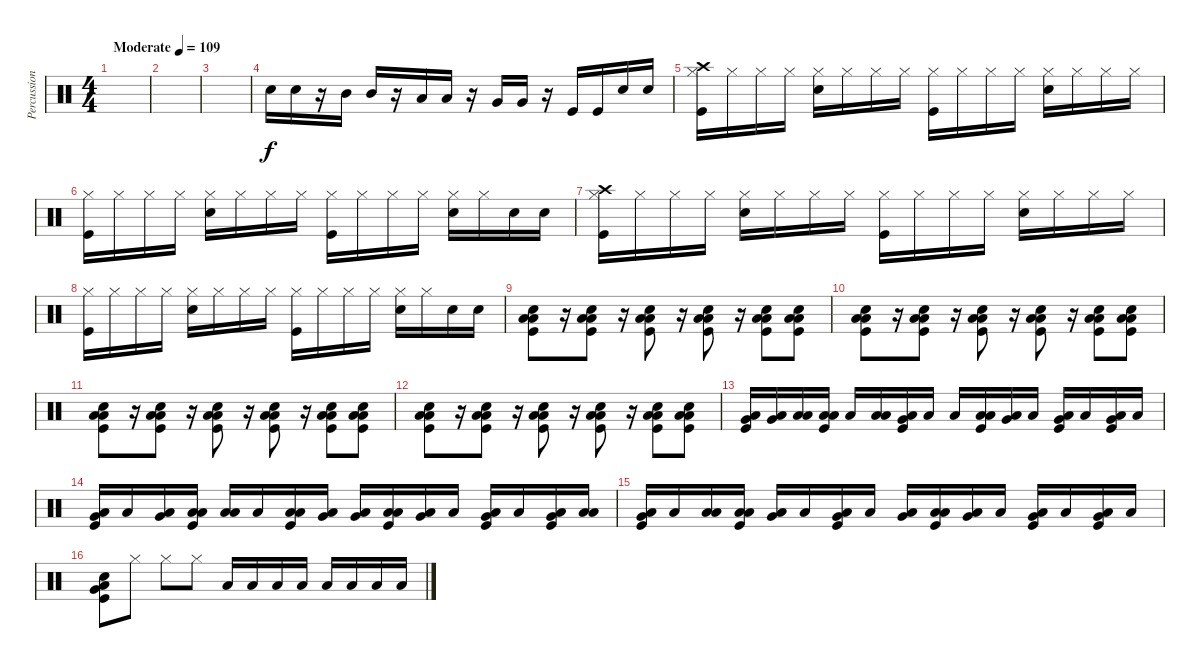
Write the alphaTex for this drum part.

\track ("Percussion" "Percussion") {instrument percussion}
\staff {score}
\articulation defaults
\ts (4 4)
\tempo (109 "Moderate")
\clef neutral
\ks c
|
|
|
"Electric Snare (hit)".16 "Electric Snare (hit)".16 r.16 "Mid Tom (hit)".16 "Mid Tom (hit)".16 r.16 "Low Tom (hit)".16 "Low Tom (hit)".16 r.16 "Very Low Tom (hit)".16 "Very Low Tom (hit)".16 r.16 "Kick (hit)".16 "Kick (hit)".16 "Electric Snare (hit)".16 "Electric Snare (hit)".16 |
("Crash high (hit)" "Hi-Hat (closed)" "Kick (hit)").16 "Hi-Hat (closed)".16 "Hi-Hat (closed)".16 "Hi-Hat (closed)".16 ("Hi-Hat (closed)" "Electric Snare (hit)").16 "Hi-Hat (closed)".16 "Hi-Hat (closed)".16 "Hi-Hat (closed)".16 ("Hi-Hat (closed)" "Kick (hit)").16 "Hi-Hat (closed)".16 "Hi-Hat (closed)".16 "Hi-Hat (closed)".16 ("Hi-Hat (closed)" "Electric Snare (hit)").16 "Hi-Hat (closed)".16 "Hi-Hat (closed)".16 "Hi-Hat (closed)".16 |
("Hi-Hat (closed)" "Kick (hit)").16 "Hi-Hat (closed)".16 "Hi-Hat (closed)".16 "Hi-Hat (closed)".16 ("Hi-Hat (closed)" "Electric Snare (hit)").16 "Hi-Hat (closed)".16 "Hi-Hat (closed)".16 "Hi-Hat (closed)".16 ("Hi-Hat (closed)" "Kick (hit)").16 "Hi-Hat (closed)".16 "Hi-Hat (closed)".16 "Hi-Hat (closed)".16 ("Hi-Hat (closed)" "Electric Snare (hit)").16 "Hi-Hat (closed)".16 "Electric Snare (hit)".16 "Electric Snare (hit)".16 |
("Crash high (hit)" "Hi-Hat (closed)" "Kick (hit)").16 "Hi-Hat (closed)".16 "Hi-Hat (closed)".16 "Hi-Hat (closed)".16 ("Hi-Hat (closed)" "Electric Snare (hit)").16 "Hi-Hat (closed)".16 "Hi-Hat (closed)".16 "Hi-Hat (closed)".16 ("Hi-Hat (closed)" "Kick (hit)").16 "Hi-Hat (closed)".16 "Hi-Hat (closed)".16 "Hi-Hat (closed)".16 ("Hi-Hat (closed)" "Electric Snare (hit)").16 "Hi-Hat (closed)".16 "Hi-Hat (closed)".16 "Hi-Hat (closed)".16 |
("Hi-Hat (closed)" "Kick (hit)").16 "Hi-Hat (closed)".16 "Hi-Hat (closed)".16 "Hi-Hat (closed)".16 ("Hi-Hat (closed)" "Electric Snare (hit)").16 "Hi-Hat (closed)".16 "Hi-Hat (closed)".16 "Hi-Hat (closed)".16 ("Hi-Hat (closed)" "Kick (hit)").16 "Hi-Hat (closed)".16 "Hi-Hat (closed)".16 "Hi-Hat (closed)".16 ("Hi-Hat (closed)" "Electric Snare (hit)").16 "Hi-Hat (closed)".16 "Electric Snare (hit)".16 "Electric Snare (hit)".16 |
("Electric Snare (hit)" "Low Floor Tom (hit)" "Kick (hit)" "Low Tom (hit)").8 r.16 ("Low Floor Tom (hit)" "Electric Snare (hit)" "Kick (hit)" "Low Tom (hit)").8 r.16 ("Low Floor Tom (hit)" "Electric Snare (hit)" "Kick (hit)" "Low Tom (hit)").8 r.16 ("Low Floor Tom (hit)" "Electric Snare (hit)" "Kick (hit)" "Low Tom (hit)").8 r.16 ("Low Floor Tom (hit)" "Electric Snare (hit)" "Kick (hit)" "Low Tom (hit)").8 ("Low Floor Tom (hit)" "Electric Snare (hit)" "Kick (hit)" "Low Tom (hit)").8 |
("Electric Snare (hit)" "Low Floor Tom (hit)" "Kick (hit)" "Low Tom (hit)").8 r.16 ("Low Floor Tom (hit)" "Electric Snare (hit)" "Kick (hit)" "Low Tom (hit)").8 r.16 ("Low Floor Tom (hit)" "Electric Snare (hit)" "Kick (hit)" "Low Tom (hit)").8 r.16 ("Low Floor Tom (hit)" "Electric Snare (hit)" "Kick (hit)" "Low Tom (hit)").8 r.16 ("Low Floor Tom (hit)" "Electric Snare (hit)" "Kick (hit)" "Low Tom (hit)").8 ("Low Floor Tom (hit)" "Electric Snare (hit)" "Kick (hit)" "Low Tom (hit)").8 |
("Electric Snare (hit)" "Low Floor Tom (hit)" "Kick (hit)" "Low Tom (hit)").8 r.16 ("Low Floor Tom (hit)" "Electric Snare (hit)" "Kick (hit)" "Low Tom (hit)").8 r.16 ("Low Floor Tom (hit)" "Electric Snare (hit)" "Kick (hit)" "Low Tom (hit)").8 r.16 ("Low Floor Tom (hit)" "Electric Snare (hit)" "Kick (hit)" "Low Tom (hit)").8 r.16 ("Low Floor Tom (hit)" "Electric Snare (hit)" "Kick (hit)" "Low Tom (hit)").8 ("Low Floor Tom (hit)" "Electric Snare (hit)" "Kick (hit)" "Low Tom (hit)").8 |
("Electric Snare (hit)" "Low Floor Tom (hit)" "Kick (hit)" "Low Tom (hit)").8 r.16 ("Low Floor Tom (hit)" "Electric Snare (hit)" "Kick (hit)" "Low Tom (hit)").8 r.16 ("Low Floor Tom (hit)" "Electric Snare (hit)" "Kick (hit)" "Low Tom (hit)").8 r.16 ("Low Floor Tom (hit)" "Electric Snare (hit)" "Kick (hit)" "Low Tom (hit)").8 r.16 ("Low Floor Tom (hit)" "Electric Snare (hit)" "Kick (hit)" "Low Tom (hit)").8 ("Low Floor Tom (hit)" "Electric Snare (hit)" "Kick (hit)" "Low Tom (hit)").8 |
("Low Floor Tom (hit)" "Very Low Tom (hit)" "Kick (hit)").16 ("Low Floor Tom (hit)" "Very Low Tom (hit)").16 ("Low Floor Tom (hit)" "Low Tom (hit)").16 ("Low Floor Tom (hit)" "Low Tom (hit)" "Kick (hit)").16 "Low Floor Tom (hit)".16 ("Low Floor Tom (hit)" "Low Tom (hit)").16 ("Low Floor Tom (hit)" "Very Low Tom (hit)" "Kick (hit)").16 "Low Floor Tom (hit)".16 "Low Floor Tom (hit)".16 ("Low Floor Tom (hit)" "Low Tom (hit)" "Kick (hit)").16 ("Low Floor Tom (hit)" "Very Low Tom (hit)").16 "Low Floor Tom (hit)".16 ("Low Floor Tom (hit)" "Very Low Tom (hit)" "Kick (hit)").16 "Low Floor Tom (hit)".16 ("Low Floor Tom (hit)" "Very Low Tom (hit)" "Kick (hit)").16 "Low Floor Tom (hit)".16 |
("Low Floor Tom (hit)" "Very Low Tom (hit)" "Kick (hit)").16 "Low Floor Tom (hit)".16 ("Low Floor Tom (hit)" "Very Low Tom (hit)").16 ("Low Floor Tom (hit)" "Low Tom (hit)" "Kick (hit)").16 ("Low Floor Tom (hit)" "Low Tom (hit)").16 "Low Floor Tom (hit)".16 ("Low Floor Tom (hit)" "Low Tom (hit)" "Kick (hit)").16 ("Low Floor Tom (hit)" "Very Low Tom (hit)").16 ("Low Floor Tom (hit)" "Very Low Tom (hit)").16 ("Low Floor Tom (hit)" "Low Tom (hit)" "Kick (hit)").16 ("Low Floor Tom (hit)" "Very Low Tom (hit)").16 "Low Floor Tom (hit)".16 ("Low Floor Tom (hit)" "Very Low Tom (hit)" "Kick (hit)").16 "Low Floor Tom (hit)".16 ("Low Floor Tom (hit)" "Very Low Tom (hit)" "Kick (hit)").16 ("Low Floor Tom (hit)" "Low Tom (hit)").16 |
("Low Floor Tom (hit)" "Very Low Tom (hit)" "Kick (hit)").16 "Low Floor Tom (hit)".16 ("Low Floor Tom (hit)" "Low Tom (hit)").16 ("Low Floor Tom (hit)" "Low Tom (hit)" "Kick (hit)").16 ("Low Floor Tom (hit)" "Very Low Tom (hit)").16 "Low Floor Tom (hit)".16 ("Low Floor Tom (hit)" "Very Low Tom (hit)" "Kick (hit)").16 "Low Floor Tom (hit)".16 ("Low Floor Tom (hit)" "Very Low Tom (hit)").16 ("Low Floor Tom (hit)" "Low Tom (hit)" "Kick (hit)").16 ("Low Floor Tom (hit)" "Very Low Tom (hit)").16 "Low Floor Tom (hit)".16 ("Low Floor Tom (hit)" "Very Low Tom (hit)" "Kick (hit)").16 "Low Floor Tom (hit)".16 ("Low Floor Tom (hit)" "Very Low Tom (hit)" "Kick (hit)").16 "Low Floor Tom (hit)".16 |
("Low Floor Tom (hit)" "Kick (hit)" "Electric Snare (hit)" "Very Low Tom (hit)").8 "Hi-Hat (closed)".8 "Hi-Hat (closed)".8 "Hi-Hat (closed)".8 "Low Tom (hit)".16 "Low Tom (hit)".16 "Low Tom (hit)".16 "Low Tom (hit)".16 "Low Tom (hit)".16 "Low Tom (hit)".16 "Low Tom (hit)".16 "Low Tom (hit)".16
